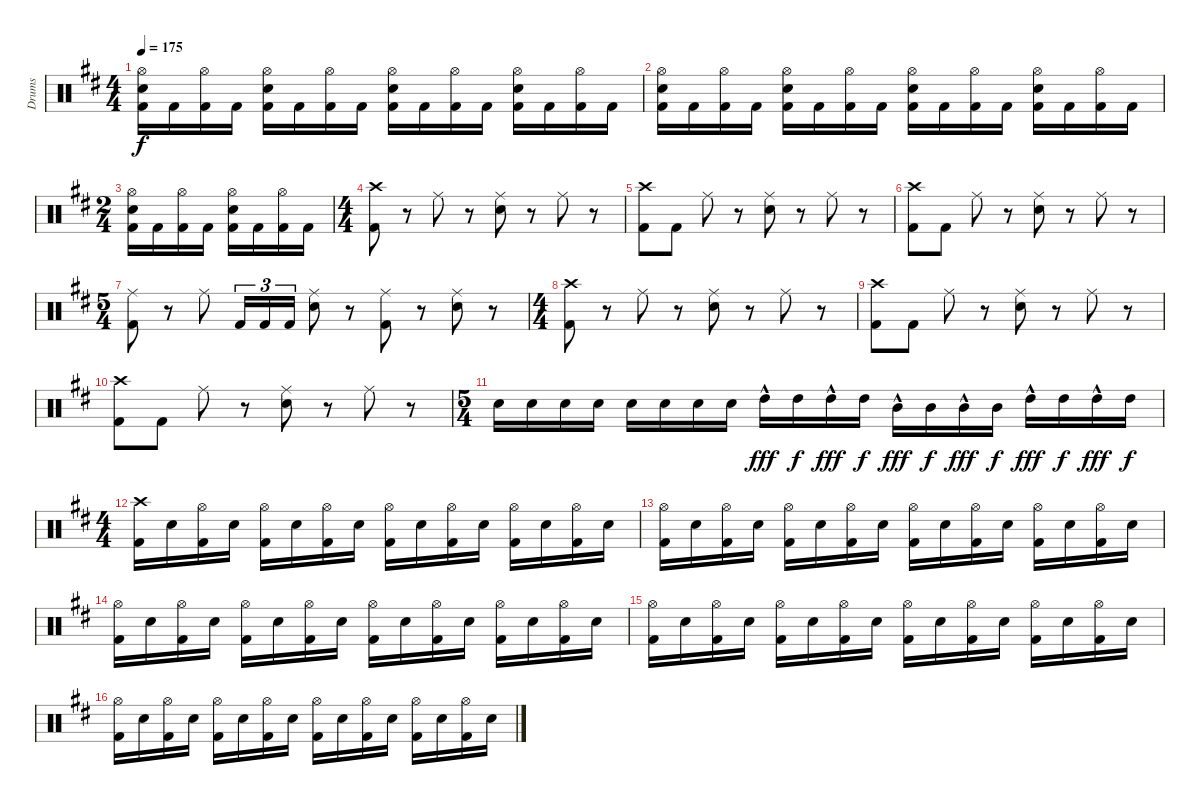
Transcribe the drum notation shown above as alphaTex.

\track ("Drums" "Drums") {instrument percussion}
\staff {score}
\articulation defaults
\ts (4 4)
\tempo 175
\clef neutral
\ks bminor
("Kick (hit) 2" "Electric Snare (hit)" "Hi-Hat (open)").16{dy f} "Kick (hit) 2".16 ("Kick (hit) 2" "Hi-Hat (open)").16 "Kick (hit) 2".16 ("Kick (hit) 2" "Electric Snare (hit)" "Hi-Hat (open)").16 "Kick (hit) 2".16 ("Kick (hit) 2" "Hi-Hat (open)").16 "Kick (hit) 2".16 ("Kick (hit) 2" "Electric Snare (hit)" "Hi-Hat (open)").16 "Kick (hit) 2".16 ("Kick (hit) 2" "Hi-Hat (open)").16 "Kick (hit) 2".16 ("Kick (hit) 2" "Electric Snare (hit)" "Hi-Hat (open)").16 "Kick (hit) 2".16 ("Kick (hit) 2" "Hi-Hat (open)").16 "Kick (hit) 2".16 |
("Kick (hit) 2" "Electric Snare (hit)" "Hi-Hat (open)").16 "Kick (hit) 2".16 ("Kick (hit) 2" "Hi-Hat (open)").16 "Kick (hit) 2".16 ("Kick (hit) 2" "Electric Snare (hit)" "Hi-Hat (open)").16 "Kick (hit) 2".16 ("Kick (hit) 2" "Hi-Hat (open)").16 "Kick (hit) 2".16 ("Kick (hit) 2" "Electric Snare (hit)" "Hi-Hat (open)").16 "Kick (hit) 2".16 ("Kick (hit) 2" "Hi-Hat (open)").16 "Kick (hit) 2".16 ("Kick (hit) 2" "Electric Snare (hit)" "Hi-Hat (open)").16 "Kick (hit) 2".16 ("Kick (hit) 2" "Hi-Hat (open)").16 "Kick (hit) 2".16 |
\ts (2 4)
("Kick (hit) 2" "Electric Snare (hit)" "Hi-Hat (open)").16 "Kick (hit) 2".16 ("Kick (hit) 2" "Hi-Hat (open)").16 "Kick (hit) 2".16 ("Kick (hit) 2" "Electric Snare (hit)" "Hi-Hat (open)").16 "Kick (hit) 2".16 ("Kick (hit) 2" "Hi-Hat (open)").16 "Kick (hit) 2".16 |
\ts (4 4)
("Kick (hit) 2" "Crash high (hit)").8 r.8 "Ride (middle)".8 r.8 ("Electric Snare (hit)" "Ride (middle)").8 r.8 "Ride (middle)".8 r.8 |
("Kick (hit) 2" "Crash high (hit)").8 "Kick (hit) 2".8 "Ride (middle)".8 r.8 ("Electric Snare (hit)" "Ride (middle)").8 r.8 "Ride (middle)".8 r.8 |
("Kick (hit) 2" "Crash high (hit)").8 "Kick (hit) 2".8 "Ride (middle)".8 r.8 ("Electric Snare (hit)" "Ride (middle)").8 r.8 "Ride (middle)".8 r.8 |
\ts (5 4)
("Kick (hit) 2" "Ride (middle)").8 r.8 "Ride (middle)".8 "Kick (hit) 2".16{tu (3 2)} "Kick (hit) 2".16{tu (3 2)} "Kick (hit) 2".16{tu (3 2)} ("Electric Snare (hit)" "Ride (middle)").8 r.8 ("Kick (hit) 2" "Ride (middle)").8 r.8 ("Electric Snare (hit)" "Ride (middle)").8 r.8 |
\ts (4 4)
("Kick (hit) 2" "Crash high (hit)").8 r.8 "Ride (middle)".8 r.8 ("Electric Snare (hit)" "Ride (middle)").8 r.8 "Ride (middle)".8 r.8 |
("Kick (hit) 2" "Crash high (hit)").8 "Kick (hit) 2".8 "Ride (middle)".8 r.8 ("Electric Snare (hit)" "Ride (middle)").8 r.8 "Ride (middle)".8 r.8 |
("Kick (hit) 2" "Crash high (hit)").8 "Kick (hit) 2".8 "Ride (middle)".8 r.8 ("Electric Snare (hit)" "Ride (middle)").8 r.8 "Ride (middle)".8 r.8 |
\ts (5 4)
"Electric Snare (hit)".16 "Electric Snare (hit)".16 "Electric Snare (hit)".16 "Electric Snare (hit)".16 "Electric Snare (hit)".16 "Electric Snare (hit)".16 "Electric Snare (hit)".16 "Electric Snare (hit)".16 "High Tom (hit)"{hac}.16{dy fff} "High Tom (hit)".16{dy f} "High Tom (hit)"{hac}.16{dy fff} "High Tom (hit)".16{dy f} "Mid Tom (hit)"{hac}.16{dy fff} "Mid Tom (hit)".16{dy f} "Mid Tom (hit)"{hac}.16{dy fff} "Mid Tom (hit)".16{dy f} "High Tom (hit)"{hac}.16{dy fff} "High Tom (hit)".16{dy f} "High Tom (hit)"{hac}.16{dy fff} "High Tom (hit)".16{dy f} |
\ts (4 4)
("Kick (hit) 2" "Crash high (hit)").16 "Electric Snare (hit)".16 ("Kick (hit) 2" "Hi-Hat (open)").16 "Electric Snare (hit)".16 ("Kick (hit) 2" "Hi-Hat (open)").16 "Electric Snare (hit)".16 ("Kick (hit) 2" "Hi-Hat (open)").16 "Electric Snare (hit)".16 ("Kick (hit) 2" "Hi-Hat (open)").16 "Electric Snare (hit)".16 ("Kick (hit) 2" "Hi-Hat (open)").16 "Electric Snare (hit)".16 ("Kick (hit) 2" "Hi-Hat (open)").16 "Electric Snare (hit)".16 ("Kick (hit) 2" "Hi-Hat (open)").16 "Electric Snare (hit)".16 |
("Kick (hit) 2" "Hi-Hat (open)").16 "Electric Snare (hit)".16 ("Kick (hit) 2" "Hi-Hat (open)").16 "Electric Snare (hit)".16 ("Kick (hit) 2" "Hi-Hat (open)").16 "Electric Snare (hit)".16 ("Kick (hit) 2" "Hi-Hat (open)").16 "Electric Snare (hit)".16 ("Kick (hit) 2" "Hi-Hat (open)").16 "Electric Snare (hit)".16 ("Kick (hit) 2" "Hi-Hat (open)").16 "Electric Snare (hit)".16 ("Kick (hit) 2" "Hi-Hat (open)").16 "Electric Snare (hit)".16 ("Kick (hit) 2" "Hi-Hat (open)").16 "Electric Snare (hit)".16 |
("Kick (hit) 2" "Hi-Hat (open)").16 "Electric Snare (hit)".16 ("Kick (hit) 2" "Hi-Hat (open)").16 "Electric Snare (hit)".16 ("Kick (hit) 2" "Hi-Hat (open)").16 "Electric Snare (hit)".16 ("Kick (hit) 2" "Hi-Hat (open)").16 "Electric Snare (hit)".16 ("Kick (hit) 2" "Hi-Hat (open)").16 "Electric Snare (hit)".16 ("Kick (hit) 2" "Hi-Hat (open)").16 "Electric Snare (hit)".16 ("Kick (hit) 2" "Hi-Hat (open)").16 "Electric Snare (hit)".16 ("Kick (hit) 2" "Hi-Hat (open)").16 "Electric Snare (hit)".16 |
("Kick (hit) 2" "Hi-Hat (open)").16 "Electric Snare (hit)".16 ("Kick (hit) 2" "Hi-Hat (open)").16 "Electric Snare (hit)".16 ("Kick (hit) 2" "Hi-Hat (open)").16 "Electric Snare (hit)".16 ("Kick (hit) 2" "Hi-Hat (open)").16 "Electric Snare (hit)".16 ("Kick (hit) 2" "Hi-Hat (open)").16 "Electric Snare (hit)".16 ("Kick (hit) 2" "Hi-Hat (open)").16 "Electric Snare (hit)".16 ("Kick (hit) 2" "Hi-Hat (open)").16 "Electric Snare (hit)".16 ("Kick (hit) 2" "Hi-Hat (open)").16 "Electric Snare (hit)".16 |
("Kick (hit) 2" "Hi-Hat (open)").16 "Electric Snare (hit)".16 ("Kick (hit) 2" "Hi-Hat (open)").16 "Electric Snare (hit)".16 ("Kick (hit) 2" "Hi-Hat (open)").16 "Electric Snare (hit)".16 ("Kick (hit) 2" "Hi-Hat (open)").16 "Electric Snare (hit)".16 ("Kick (hit) 2" "Hi-Hat (open)").16 "Electric Snare (hit)".16 ("Kick (hit) 2" "Hi-Hat (open)").16 "Electric Snare (hit)".16 ("Kick (hit) 2" "Hi-Hat (open)").16 "Electric Snare (hit)".16 ("Kick (hit) 2" "Hi-Hat (open)").16 "Electric Snare (hit)".16
